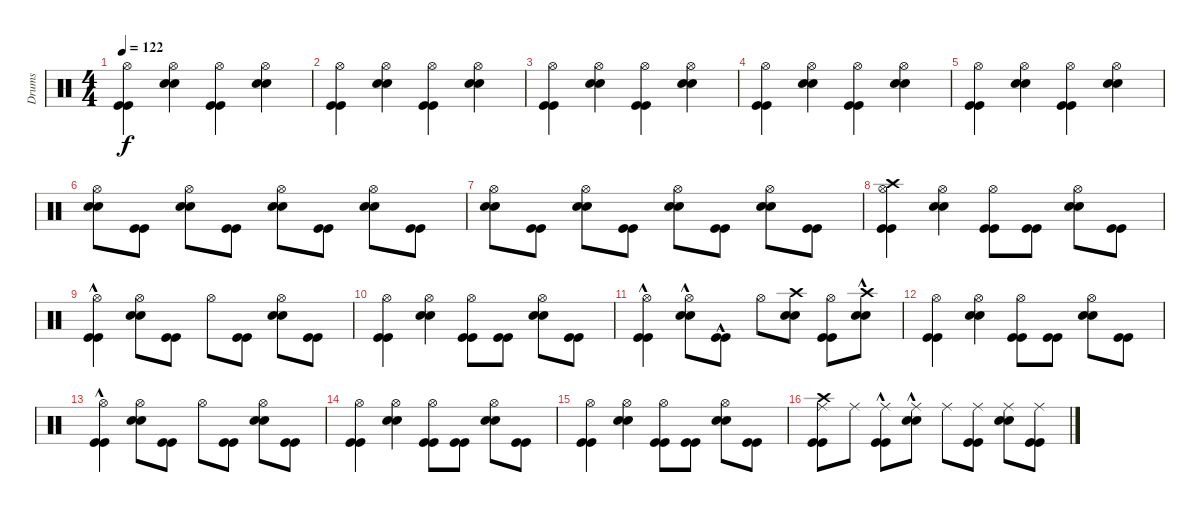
\track ("Drums" "Drums") {instrument percussion}
\staff {score}
\articulation defaults
\ts (4 4)
\tempo 122
\clef neutral
\ks c
("Kick (hit)" "Kick (hit)" "Hi-Hat (open)").4{dy f} ("Snare (hit) 2" "Snare (hit) 2" "Hi-Hat (open)").4 ("Kick (hit)" "Kick (hit)" "Hi-Hat (open)").4 ("Snare (hit) 2" "Snare (hit) 2" "Hi-Hat (open)").4 |
("Kick (hit)" "Kick (hit)" "Hi-Hat (open)").4 ("Snare (hit) 2" "Snare (hit) 2" "Hi-Hat (open)").4 ("Kick (hit)" "Kick (hit)" "Hi-Hat (open)").4 ("Snare (hit) 2" "Snare (hit) 2" "Hi-Hat (open)").4 |
("Kick (hit)" "Kick (hit)" "Hi-Hat (open)").4 ("Snare (hit) 2" "Snare (hit) 2" "Hi-Hat (open)").4 ("Kick (hit)" "Kick (hit)" "Hi-Hat (open)").4 ("Snare (hit) 2" "Snare (hit) 2" "Hi-Hat (open)").4 |
("Kick (hit)" "Kick (hit)" "Hi-Hat (open)").4 ("Snare (hit) 2" "Snare (hit) 2" "Hi-Hat (open)").4 ("Kick (hit)" "Kick (hit)" "Hi-Hat (open)").4 ("Snare (hit) 2" "Snare (hit) 2" "Hi-Hat (open)").4 |
("Kick (hit)" "Kick (hit)" "Hi-Hat (open)").4 ("Snare (hit) 2" "Snare (hit) 2" "Hi-Hat (open)").4 ("Kick (hit)" "Kick (hit)" "Hi-Hat (open)").4 ("Snare (hit) 2" "Snare (hit) 2" "Hi-Hat (open)").4 |
("Snare (hit) 2" "Snare (hit) 2" "Hi-Hat (open)").8 ("Kick (hit)" "Kick (hit)").8 ("Snare (hit) 2" "Snare (hit) 2" "Hi-Hat (open)").8 ("Kick (hit)" "Kick (hit)").8 ("Snare (hit) 2" "Snare (hit) 2" "Hi-Hat (open)").8 ("Kick (hit)" "Kick (hit)").8 ("Snare (hit) 2" "Snare (hit) 2" "Hi-Hat (open)").8 ("Kick (hit)" "Kick (hit)").8 |
("Snare (hit) 2" "Snare (hit) 2" "Hi-Hat (open)").8 ("Kick (hit)" "Kick (hit)").8 ("Snare (hit) 2" "Snare (hit) 2" "Hi-Hat (open)").8 ("Kick (hit)" "Kick (hit)").8 ("Snare (hit) 2" "Snare (hit) 2" "Hi-Hat (open)").8 ("Kick (hit)" "Kick (hit)").8 ("Snare (hit) 2" "Snare (hit) 2" "Hi-Hat (open)").8 ("Kick (hit)" "Kick (hit)").8 |
("Kick (hit)" "Kick (hit)" "Hi-Hat (open)" "Crash high (hit)").4 ("Snare (hit) 2" "Snare (hit) 2" "Hi-Hat (open)").4 ("Kick (hit)" "Kick (hit)" "Hi-Hat (open)").8 ("Kick (hit)" "Kick (hit)").8 ("Snare (hit) 2" "Snare (hit) 2" "Hi-Hat (open)").8 ("Kick (hit)" "Kick (hit)").8 |
("Kick (hit)"{hac} "Kick (hit)"{hac} "Hi-Hat (open)").4 ("Snare (hit) 2" "Snare (hit) 2" "Hi-Hat (open)").8 ("Kick (hit)" "Kick (hit)").8 "Hi-Hat (open)".8 ("Kick (hit)" "Kick (hit)").8 ("Snare (hit) 2" "Snare (hit) 2" "Hi-Hat (open)").8 ("Kick (hit)" "Kick (hit)").8 |
("Kick (hit)" "Kick (hit)" "Hi-Hat (open)").4 ("Snare (hit) 2" "Snare (hit) 2" "Hi-Hat (open)").4 ("Kick (hit)" "Kick (hit)" "Hi-Hat (open)").8 ("Kick (hit)" "Kick (hit)").8 ("Snare (hit) 2" "Snare (hit) 2" "Hi-Hat (open)").8 ("Kick (hit)" "Kick (hit)").8 |
("Kick (hit)"{hac} "Kick (hit)"{hac} "Hi-Hat (open)").4 ("Snare (hit) 2"{hac} "Snare (hit) 2"{hac} "Hi-Hat (open)").8 ("Kick (hit)"{hac} "Kick (hit)"{hac}).8 "Hi-Hat (open)".8 ("Snare (hit) 2" "Snare (hit) 2" "Crash high (hit)").8 ("Kick (hit)" "Kick (hit)" "Hi-Hat (open)").8 ("Snare (hit) 2"{hac} "Snare (hit) 2"{hac} "Crash high (hit)").8 |
("Kick (hit)" "Kick (hit)" "Hi-Hat (open)").4 ("Snare (hit) 2" "Snare (hit) 2" "Hi-Hat (open)").4 ("Kick (hit)" "Kick (hit)" "Hi-Hat (open)").8 ("Kick (hit)" "Kick (hit)").8 ("Snare (hit) 2" "Snare (hit) 2" "Hi-Hat (open)").8 ("Kick (hit)" "Kick (hit)").8 |
("Kick (hit)"{hac} "Kick (hit)"{hac} "Hi-Hat (open)").4 ("Snare (hit) 2" "Snare (hit) 2" "Hi-Hat (open)").8 ("Kick (hit)" "Kick (hit)").8 "Hi-Hat (open)".8 ("Kick (hit)" "Kick (hit)").8 ("Snare (hit) 2" "Snare (hit) 2" "Hi-Hat (open)").8 ("Kick (hit)" "Kick (hit)").8 |
("Kick (hit)" "Kick (hit)" "Hi-Hat (open)").4 ("Snare (hit) 2" "Snare (hit) 2" "Hi-Hat (open)").4 ("Kick (hit)" "Kick (hit)" "Hi-Hat (open)").8 ("Kick (hit)" "Kick (hit)").8 ("Snare (hit) 2" "Snare (hit) 2" "Hi-Hat (open)").8 ("Kick (hit)" "Kick (hit)").8 |
("Kick (hit)" "Kick (hit)" "Hi-Hat (open)").4 ("Snare (hit) 2" "Snare (hit) 2" "Hi-Hat (open)").4 ("Kick (hit)" "Kick (hit)" "Hi-Hat (open)").8 ("Kick (hit)" "Kick (hit)").8 ("Snare (hit) 2" "Snare (hit) 2" "Hi-Hat (open)").8 ("Kick (hit)" "Kick (hit)").8 |
("Kick (hit)" "Kick (hit)" "Ride (middle)" "Crash high (hit)").8 "Ride (middle)".8 ("Kick (hit)"{hac} "Kick (hit)"{hac} "Ride (middle)").8 ("Snare (hit) 2"{hac} "Snare (hit) 2"{hac} "Ride (middle)").8 "Ride (middle)".8 ("Kick (hit)" "Kick (hit)" "Ride (middle)").8 ("Snare (hit) 2" "Snare (hit) 2" "Ride (middle)").8 ("Kick (hit)" "Kick (hit)" "Ride (middle)").8
